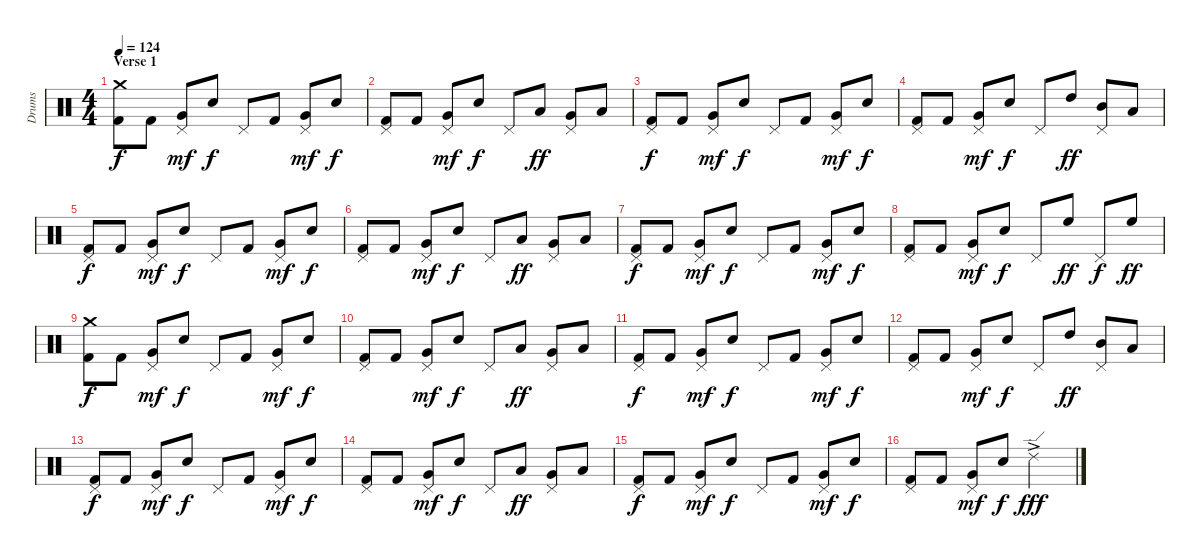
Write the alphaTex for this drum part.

\track ("Drums" "Drums") {instrument percussion}
\staff {score}
\articulation defaults
\ts (4 4)
\section ("" "Verse 1 ")
\tempo 124
\clef neutral
\ks c
("Crash medium (hit)" "Kick (hit) 2").8{dy f} "Kick (hit) 2".8 ("Pedal Hi-Hat (hit)" "Very Low Tom (hit)").8{dy mf} "Snare (hit) 2".8{dy f} "Pedal Hi-Hat (hit)".8 "Kick (hit) 2".8 ("Pedal Hi-Hat (hit)" "Very Low Tom (hit)").8{dy mf} "Snare (hit) 2".8{dy f} |
("Pedal Hi-Hat (hit)" "Kick (hit) 2").8 "Kick (hit) 2".8 ("Pedal Hi-Hat (hit)" "Very Low Tom (hit)").8{dy mf} "Snare (hit) 2".8{dy f} "Pedal Hi-Hat (hit)".8 "Low Tom (hit)".8{dy ff} ("Pedal Hi-Hat (hit)" "Very Low Tom (hit)").8 "Low Floor Tom (hit)".8 |
("Pedal Hi-Hat (hit)" "Kick (hit) 2").8{dy f} "Kick (hit) 2".8 ("Pedal Hi-Hat (hit)" "Very Low Tom (hit)").8{dy mf} "Snare (hit) 2".8{dy f} "Pedal Hi-Hat (hit)".8 "Kick (hit) 2".8 ("Pedal Hi-Hat (hit)" "Very Low Tom (hit)").8{dy mf} "Snare (hit) 2".8{dy f} |
("Pedal Hi-Hat (hit)" "Kick (hit) 2").8 "Kick (hit) 2".8 ("Pedal Hi-Hat (hit)" "Very Low Tom (hit)").8{dy mf} "Snare (hit) 2".8{dy f} "Pedal Hi-Hat (hit)".8 "High Tom (hit)".8{dy ff} ("Pedal Hi-Hat (hit)" "Mid Tom (hit)").8 "Low Tom (hit)".8 |
("Pedal Hi-Hat (hit)" "Kick (hit) 2").8{dy f} "Kick (hit) 2".8 ("Pedal Hi-Hat (hit)" "Very Low Tom (hit)").8{dy mf} "Snare (hit) 2".8{dy f} "Pedal Hi-Hat (hit)".8 "Kick (hit) 2".8 ("Pedal Hi-Hat (hit)" "Very Low Tom (hit)").8{dy mf} "Snare (hit) 2".8{dy f} |
("Pedal Hi-Hat (hit)" "Kick (hit) 2").8 "Kick (hit) 2".8 ("Pedal Hi-Hat (hit)" "Very Low Tom (hit)").8{dy mf} "Snare (hit) 2".8{dy f} "Pedal Hi-Hat (hit)".8 "Low Tom (hit)".8{dy ff} ("Pedal Hi-Hat (hit)" "Very Low Tom (hit)").8 "Low Floor Tom (hit)".8 |
("Pedal Hi-Hat (hit)" "Kick (hit) 2").8{dy f} "Kick (hit) 2".8 ("Pedal Hi-Hat (hit)" "Very Low Tom (hit)").8{dy mf} "Snare (hit) 2".8{dy f} "Pedal Hi-Hat (hit)".8 "Kick (hit) 2".8 ("Pedal Hi-Hat (hit)" "Very Low Tom (hit)").8{dy mf} "Snare (hit) 2".8{dy f} |
("Pedal Hi-Hat (hit)" "Kick (hit) 2").8 "Kick (hit) 2".8 ("Pedal Hi-Hat (hit)" "Very Low Tom (hit)").8{dy mf} "Snare (hit) 2".8{dy f} "Pedal Hi-Hat (hit)".8 "High Floor Tom (hit)".8{dy ff} "Pedal Hi-Hat (hit)".8{dy f} "High Floor Tom (hit)".8{dy ff} |
("Crash medium (hit)" "Kick (hit) 2").8{dy f} "Kick (hit) 2".8 ("Pedal Hi-Hat (hit)" "Very Low Tom (hit)").8{dy mf} "Snare (hit) 2".8{dy f} "Pedal Hi-Hat (hit)".8 "Kick (hit) 2".8 ("Pedal Hi-Hat (hit)" "Very Low Tom (hit)").8{dy mf} "Snare (hit) 2".8{dy f} |
("Pedal Hi-Hat (hit)" "Kick (hit) 2").8 "Kick (hit) 2".8 ("Pedal Hi-Hat (hit)" "Very Low Tom (hit)").8{dy mf} "Snare (hit) 2".8{dy f} "Pedal Hi-Hat (hit)".8 "Low Tom (hit)".8{dy ff} ("Pedal Hi-Hat (hit)" "Very Low Tom (hit)").8 "Low Floor Tom (hit)".8 |
("Pedal Hi-Hat (hit)" "Kick (hit) 2").8{dy f} "Kick (hit) 2".8 ("Pedal Hi-Hat (hit)" "Very Low Tom (hit)").8{dy mf} "Snare (hit) 2".8{dy f} "Pedal Hi-Hat (hit)".8 "Kick (hit) 2".8 ("Pedal Hi-Hat (hit)" "Very Low Tom (hit)").8{dy mf} "Snare (hit) 2".8{dy f} |
("Pedal Hi-Hat (hit)" "Kick (hit) 2").8 "Kick (hit) 2".8 ("Pedal Hi-Hat (hit)" "Very Low Tom (hit)").8{dy mf} "Snare (hit) 2".8{dy f} "Pedal Hi-Hat (hit)".8 "High Tom (hit)".8{dy ff} ("Pedal Hi-Hat (hit)" "Mid Tom (hit)").8 "Low Tom (hit)".8 |
("Pedal Hi-Hat (hit)" "Kick (hit) 2").8{dy f} "Kick (hit) 2".8 ("Pedal Hi-Hat (hit)" "Very Low Tom (hit)").8{dy mf} "Snare (hit) 2".8{dy f} "Pedal Hi-Hat (hit)".8 "Kick (hit) 2".8 ("Pedal Hi-Hat (hit)" "Very Low Tom (hit)").8{dy mf} "Snare (hit) 2".8{dy f} |
("Pedal Hi-Hat (hit)" "Kick (hit) 2").8 "Kick (hit) 2".8 ("Pedal Hi-Hat (hit)" "Very Low Tom (hit)").8{dy mf} "Snare (hit) 2".8{dy f} "Pedal Hi-Hat (hit)".8 "Low Tom (hit)".8{dy ff} ("Pedal Hi-Hat (hit)" "Very Low Tom (hit)").8 "Low Floor Tom (hit)".8 |
("Pedal Hi-Hat (hit)" "Kick (hit) 2").8{dy f} "Kick (hit) 2".8 ("Pedal Hi-Hat (hit)" "Very Low Tom (hit)").8{dy mf} "Snare (hit) 2".8{dy f} "Pedal Hi-Hat (hit)".8 "Kick (hit) 2".8 ("Pedal Hi-Hat (hit)" "Very Low Tom (hit)").8{dy mf} "Snare (hit) 2".8{dy f} |
("Pedal Hi-Hat (hit)" "Kick (hit) 2").8 "Kick (hit) 2".8 ("Pedal Hi-Hat (hit)" "Very Low Tom (hit)").8{dy mf} "Snare (hit) 2".8{dy f} "Ride (edge) 2"{ac}.2{dy fff}
